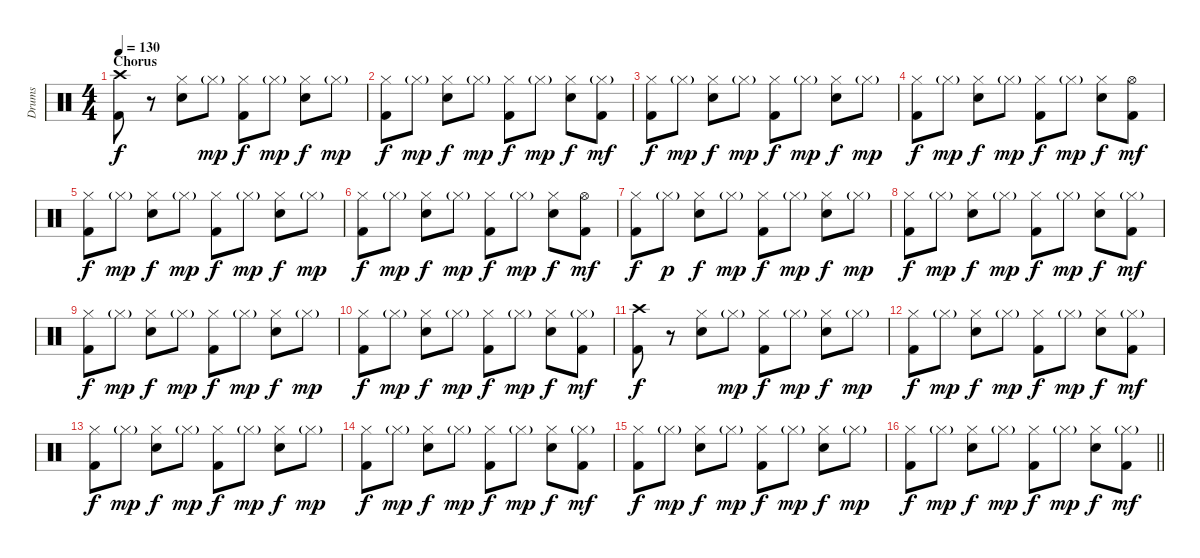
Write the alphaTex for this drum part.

\track ("Drums" "Drums") {instrument percussion}
\staff {score}
\articulation defaults
\ts (4 4)
\section ("" "Chorus")
\tempo 130
\clef neutral
\ks c
("Crash high (hit)" "Kick (hit) 2").8{dy f} r.8 ("Hi-Hat (closed)" "Snare (hit) 2").8 "Hi-Hat (closed)"{g}.8{dy mp} ("Hi-Hat (closed)" "Kick (hit) 2").8{dy f} "Hi-Hat (closed)"{g}.8{dy mp} ("Hi-Hat (closed)" "Snare (hit) 2").8{dy f} "Hi-Hat (closed)"{g}.8{dy mp} |
("Hi-Hat (closed)" "Kick (hit) 2").8{dy f} "Hi-Hat (closed)"{g}.8{dy mp} ("Hi-Hat (closed)" "Snare (hit) 2").8{dy f} "Hi-Hat (closed)"{g}.8{dy mp} ("Hi-Hat (closed)" "Kick (hit) 2").8{dy f} "Hi-Hat (closed)"{g}.8{dy mp} ("Hi-Hat (closed)" "Snare (hit) 2").8{dy f} ("Hi-Hat (closed)"{g} "Kick (hit) 2").8{dy mf} |
("Hi-Hat (closed)" "Kick (hit) 2").8{dy f} "Hi-Hat (closed)"{g}.8{dy mp} ("Hi-Hat (closed)" "Snare (hit) 2").8{dy f} "Hi-Hat (closed)"{g}.8{dy mp} ("Hi-Hat (closed)" "Kick (hit) 2").8{dy f} "Hi-Hat (closed)"{g}.8{dy mp} ("Hi-Hat (closed)" "Snare (hit) 2").8{dy f} "Hi-Hat (closed)"{g}.8{dy mp} |
("Hi-Hat (closed)" "Kick (hit) 2").8{dy f} "Hi-Hat (closed)"{g}.8{dy mp} ("Hi-Hat (closed)" "Snare (hit) 2").8{dy f} "Hi-Hat (closed)"{g}.8{dy mp} ("Hi-Hat (closed)" "Kick (hit) 2").8{dy f} "Hi-Hat (closed)"{g}.8{dy mp} ("Hi-Hat (closed)" "Snare (hit) 2").8{dy f} ("Hi-Hat (open)" "Kick (hit) 2").8{dy mf} |
("Hi-Hat (closed)" "Kick (hit) 2").8{dy f} "Hi-Hat (closed)"{g}.8{dy mp} ("Hi-Hat (closed)" "Snare (hit) 2").8{dy f} "Hi-Hat (closed)"{g}.8{dy mp} ("Hi-Hat (closed)" "Kick (hit) 2").8{dy f} "Hi-Hat (closed)"{g}.8{dy mp} ("Hi-Hat (closed)" "Snare (hit) 2").8{dy f} "Hi-Hat (closed)"{g}.8{dy mp} |
("Hi-Hat (closed)" "Kick (hit) 2").8{dy f} "Hi-Hat (closed)"{g}.8{dy mp} ("Hi-Hat (closed)" "Snare (hit) 2").8{dy f} "Hi-Hat (closed)"{g}.8{dy mp} ("Hi-Hat (closed)" "Kick (hit) 2").8{dy f} "Hi-Hat (closed)"{g}.8{dy mp} ("Hi-Hat (closed)" "Snare (hit) 2").8{dy f} ("Hi-Hat (open)" "Kick (hit) 2").8{dy mf} |
("Hi-Hat (closed)" "Kick (hit) 2").8{dy f} "Hi-Hat (closed)"{g}.8{dy p} ("Hi-Hat (closed)" "Snare (hit) 2").8{dy f} "Hi-Hat (closed)"{g}.8{dy mp} ("Hi-Hat (closed)" "Kick (hit) 2").8{dy f} "Hi-Hat (closed)"{g}.8{dy mp} ("Hi-Hat (closed)" "Snare (hit) 2").8{dy f} "Hi-Hat (closed)"{g}.8{dy mp} |
("Hi-Hat (closed)" "Kick (hit) 2").8{dy f} "Hi-Hat (closed)"{g}.8{dy mp} ("Hi-Hat (closed)" "Snare (hit) 2").8{dy f} "Hi-Hat (closed)"{g}.8{dy mp} ("Hi-Hat (closed)" "Kick (hit) 2").8{dy f} "Hi-Hat (closed)"{g}.8{dy mp} ("Hi-Hat (closed)" "Snare (hit) 2").8{dy f} ("Hi-Hat (closed)"{g} "Kick (hit) 2").8{dy mf} |
("Hi-Hat (closed)" "Kick (hit) 2").8{dy f} "Hi-Hat (closed)"{g}.8{dy mp} ("Hi-Hat (closed)" "Snare (hit) 2").8{dy f} "Hi-Hat (closed)"{g}.8{dy mp} ("Hi-Hat (closed)" "Kick (hit) 2").8{dy f} "Hi-Hat (closed)"{g}.8{dy mp} ("Hi-Hat (closed)" "Snare (hit) 2").8{dy f} "Hi-Hat (closed)"{g}.8{dy mp} |
("Hi-Hat (closed)" "Kick (hit) 2").8{dy f} "Hi-Hat (closed)"{g}.8{dy mp} ("Hi-Hat (closed)" "Snare (hit) 2").8{dy f} "Hi-Hat (closed)"{g}.8{dy mp} ("Hi-Hat (closed)" "Kick (hit) 2").8{dy f} "Hi-Hat (closed)"{g}.8{dy mp} ("Hi-Hat (closed)" "Snare (hit) 2").8{dy f} ("Hi-Hat (closed)"{g} "Kick (hit) 2").8{dy mf} |
("Crash high (hit)" "Kick (hit) 2").8{dy f} r.8 ("Hi-Hat (closed)" "Snare (hit) 2").8 "Hi-Hat (closed)"{g}.8{dy mp} ("Hi-Hat (closed)" "Kick (hit) 2").8{dy f} "Hi-Hat (closed)"{g}.8{dy mp} ("Hi-Hat (closed)" "Snare (hit) 2").8{dy f} "Hi-Hat (closed)"{g}.8{dy mp} |
("Hi-Hat (closed)" "Kick (hit) 2").8{dy f} "Hi-Hat (closed)"{g}.8{dy mp} ("Hi-Hat (closed)" "Snare (hit) 2").8{dy f} "Hi-Hat (closed)"{g}.8{dy mp} ("Hi-Hat (closed)" "Kick (hit) 2").8{dy f} "Hi-Hat (closed)"{g}.8{dy mp} ("Hi-Hat (closed)" "Snare (hit) 2").8{dy f} ("Hi-Hat (closed)"{g} "Kick (hit) 2").8{dy mf} |
("Hi-Hat (closed)" "Kick (hit) 2").8{dy f} "Hi-Hat (closed)"{g}.8{dy mp} ("Hi-Hat (closed)" "Snare (hit) 2").8{dy f} "Hi-Hat (closed)"{g}.8{dy mp} ("Hi-Hat (closed)" "Kick (hit) 2").8{dy f} "Hi-Hat (closed)"{g}.8{dy mp} ("Hi-Hat (closed)" "Snare (hit) 2").8{dy f} "Hi-Hat (closed)"{g}.8{dy mp} |
("Hi-Hat (closed)" "Kick (hit) 2").8{dy f} "Hi-Hat (closed)"{g}.8{dy mp} ("Hi-Hat (closed)" "Snare (hit) 2").8{dy f} "Hi-Hat (closed)"{g}.8{dy mp} ("Hi-Hat (closed)" "Kick (hit) 2").8{dy f} "Hi-Hat (closed)"{g}.8{dy mp} ("Hi-Hat (closed)" "Snare (hit) 2").8{dy f} ("Hi-Hat (closed)"{g} "Kick (hit) 2").8{dy mf} |
("Hi-Hat (closed)" "Kick (hit) 2").8{dy f} "Hi-Hat (closed)"{g}.8{dy mp} ("Hi-Hat (closed)" "Snare (hit) 2").8{dy f} "Hi-Hat (closed)"{g}.8{dy mp} ("Hi-Hat (closed)" "Kick (hit) 2").8{dy f} "Hi-Hat (closed)"{g}.8{dy mp} ("Hi-Hat (closed)" "Snare (hit) 2").8{dy f} "Hi-Hat (closed)"{g}.8{dy mp} |
\barLineRight lightlight
("Hi-Hat (closed)" "Kick (hit) 2").8{dy f} "Hi-Hat (closed)"{g}.8{dy mp} ("Hi-Hat (closed)" "Snare (hit) 2").8{dy f} "Hi-Hat (closed)"{g}.8{dy mp} ("Hi-Hat (closed)" "Kick (hit) 2").8{dy f} "Hi-Hat (closed)"{g}.8{dy mp} ("Hi-Hat (closed)" "Snare (hit) 2").8{dy f} ("Hi-Hat (closed)"{g} "Kick (hit) 2").8{dy mf}
